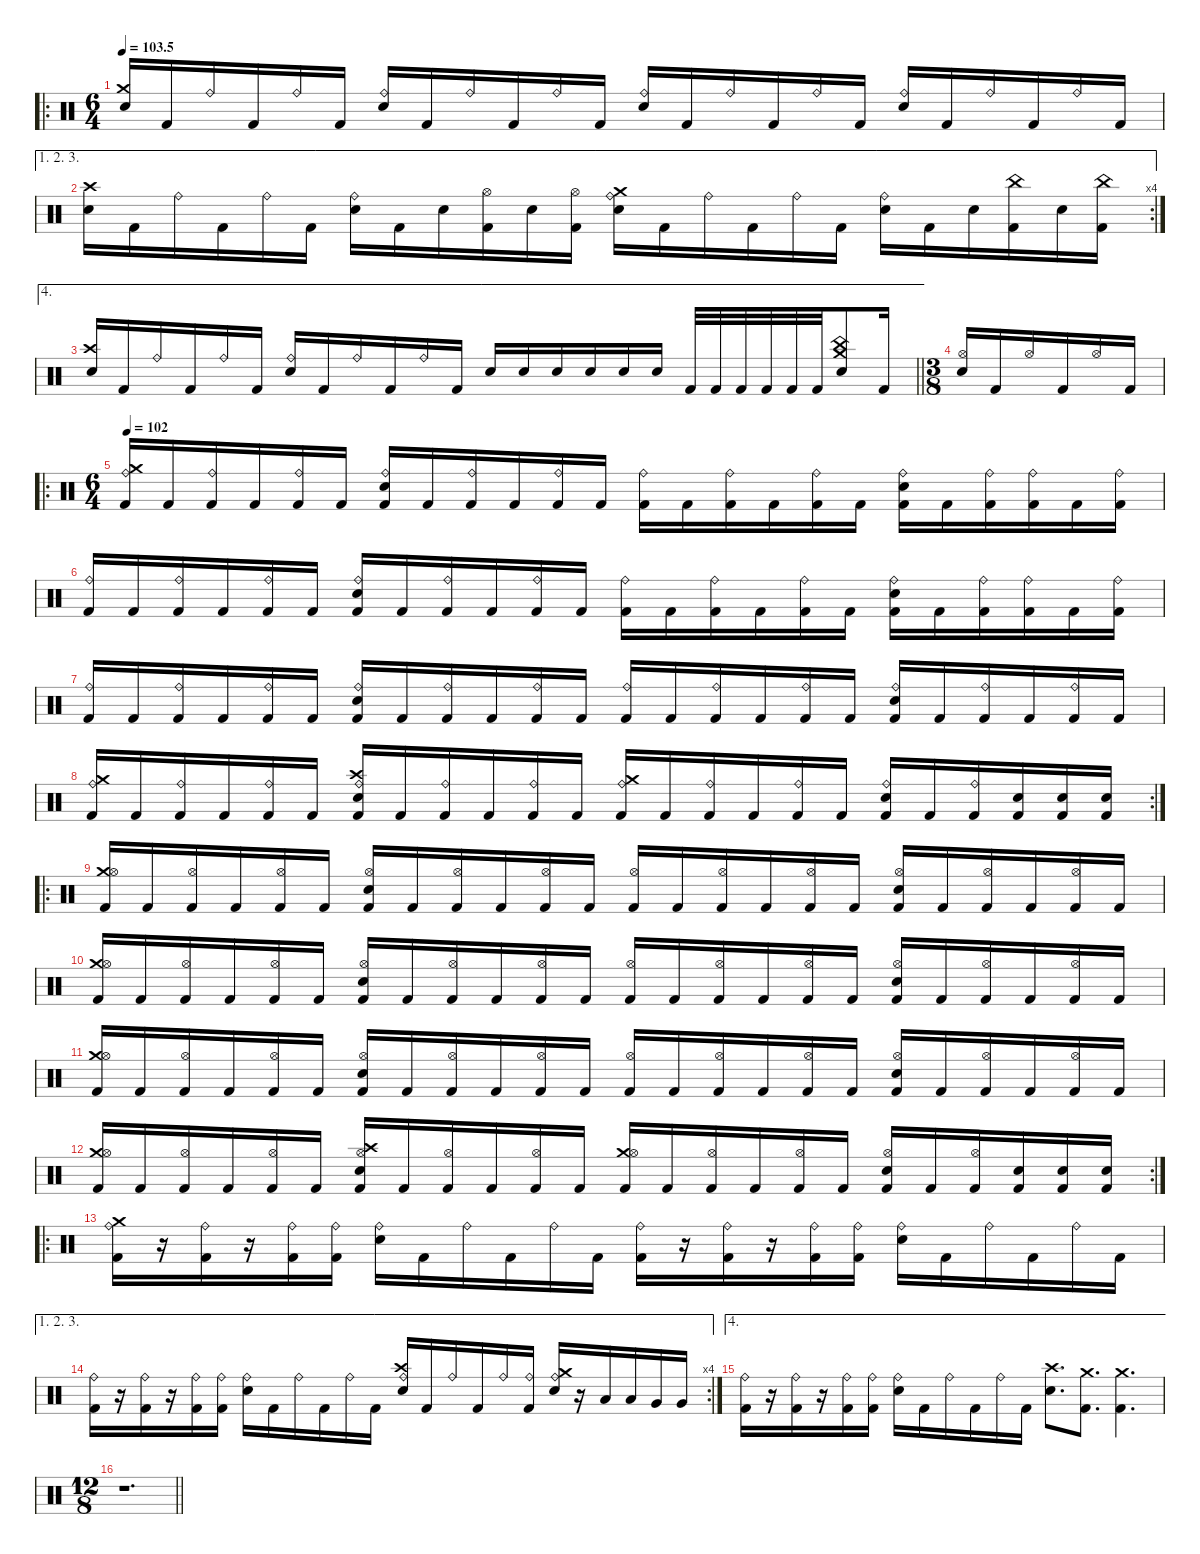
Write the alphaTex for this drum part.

\defaultSystemsLayout 4
\hideDynamics
\bracketExtendMode nobrackets
\singleTrackTrackNamePolicy hidden
\multiTrackTrackNamePolicy hidden
\firstSystemTrackNameMode fullname
\otherSystemsTrackNameOrientation horizontal
\track ("Drum set" "drm.") {instrument percussion}
\staff {score}
\articulation defaults
\ro
\ts (6 4)
\beaming (8 3 3 3 3)
\tempo
103.5
\accidentals auto
\clef neutral
\ottava regular
\simile none
\ks aminor
("Crash medium (hit)" "Snare (hit) 2").16{dy f beam Up} "Kick (hit) 2".16{beam Up} "Ride (bell)".16{beam Up} "Kick (hit) 2".16{beam Up} "Ride (bell)".16{beam Up} "Kick (hit) 2".16{beam Up} ("Ride (bell)" "Snare (hit) 2").16{beam Up} "Kick (hit) 2".16{beam Up} "Ride (bell)".16{beam Up} "Kick (hit) 2".16{beam Up} "Ride (bell)".16{beam Up} "Kick (hit) 2".16{beam Up} ("Ride (bell)" "Snare (hit) 2").16{beam Up} "Kick (hit) 2".16{beam Up} "Ride (bell)".16{beam Up} "Kick (hit) 2".16{beam Up} "Ride (bell)".16{beam Up} "Kick (hit) 2".16{beam Up} ("Ride (bell)" "Snare (hit) 2").16{beam Up} "Kick (hit) 2".16{beam Up} "Ride (bell)".16{beam Up} "Kick (hit) 2".16{beam Up} "Ride (bell)".16{beam Up} "Kick (hit) 2".16{beam Up} |
\ae (1 2 3)
\rc 4
("Crash high (hit)" "Snare (hit) 2").16{beam Down} "Kick (hit) 2".16{beam Down} "Ride (bell)".16{beam Down} "Kick (hit) 2".16{beam Down} "Ride (bell)".16{beam Down} "Kick (hit) 2".16{beam Down} ("Ride (bell)" "Snare (hit) 2").16{beam Down} "Kick (hit) 2".16{beam Down} "Snare (hit) 2".16{beam Down} ("Hi-Hat (open)" "Kick (hit) 2").16{beam Down} "Snare (hit) 2".16{beam Down} ("Hi-Hat (open)" "Kick (hit) 2").16{beam Down} ("Crash medium (hit)" "Ride (bell)" "Snare (hit) 2").16{beam Down} "Kick (hit) 2".16{beam Down} "Ride (bell)".16{beam Down} "Kick (hit) 2".16{beam Down} "Ride (bell)".16{beam Down} "Kick (hit) 2".16{beam Down} ("Ride (bell)" "Snare (hit) 2").16{beam Down} "Kick (hit) 2".16{beam Down} "Snare (hit) 2".16{beam Down} ("China (hit)" "Kick (hit) 2").16{beam Down} "Snare (hit) 2".16{beam Down} ("China (hit)" "Kick (hit) 2").16{beam Down} |
\ae 4
\barLineRight lightlight
("Crash high (hit)" "Snare (hit) 2").16{beam Up} "Kick (hit) 2".16{beam Up} "Ride (bell)".16{beam Up} "Kick (hit) 2".16{beam Up} "Ride (bell)".16{beam Up} "Kick (hit) 2".16{beam Up} ("Ride (bell)" "Snare (hit) 2").16{beam Up} "Kick (hit) 2".16{beam Up} "Ride (bell)".16{beam Up} "Kick (hit) 2".16{beam Up} "Ride (bell)".16{beam Up} "Kick (hit) 2".16{beam Up} "Snare (hit) 2".16{beam Up} "Snare (hit) 2".16{beam Up} "Snare (hit) 2".16{beam Up} "Snare (hit) 2".16{beam Up} "Snare (hit) 2".16{beam Up} "Snare (hit) 2".16{beam Up} "Kick (hit) 2".32{beam Up} "Kick (hit) 2".32{beam Up} "Kick (hit) 2".32{beam Up} "Kick (hit) 2".32{beam Up} "Kick (hit) 2".32{beam Up} "Kick (hit) 2".32{beam Up} ("China (hit)" "Crash medium (hit)" "Snare (hit) 2").8{beam Up} "Kick (hit) 2".16{beam Up} |
\ts (3 8)
\beaming (8 3 3 3 3)
("Hi-Hat (open)" "Snare (hit) 2").16{beam Up} "Kick (hit) 2".16{beam Up} "Hi-Hat (open)".16{beam Up} "Kick (hit) 2".16{beam Up} "Hi-Hat (open)".16{beam Up} "Kick (hit) 2".16{beam Up} |
\ro
\ts (6 4)
\beaming (8 3 3 3 3)
\tempo 102
("Crash medium (hit)" "Ride (bell)" "Kick (hit) 2").16{beam Up} "Kick (hit) 2".16{beam Up} ("Ride (bell)" "Kick (hit) 2").16{beam Up} "Kick (hit) 2".16{beam Up} ("Ride (bell)" "Kick (hit) 2").16{beam Up} "Kick (hit) 2".16{beam Up} ("Ride (bell)" "Snare (hit) 2" "Kick (hit) 2").16{beam Up} "Kick (hit) 2".16{beam Up} ("Ride (bell)" "Kick (hit) 2").16{beam Up} "Kick (hit) 2".16{beam Up} ("Ride (bell)" "Kick (hit) 2").16{beam Up} "Kick (hit) 2".16{beam Up} ("Ride (bell)" "Kick (hit) 2").16{beam Down} "Kick (hit) 2".16{beam Down} ("Ride (bell)" "Kick (hit) 2").16{beam Down} "Kick (hit) 2".16{beam Down} ("Ride (bell)" "Kick (hit) 2").16{beam Down} "Kick (hit) 2".16{beam Down} ("Ride (bell)" "Snare (hit) 2" "Kick (hit) 2").16{beam Down} "Kick (hit) 2".16{beam Down} ("Ride (bell)" "Kick (hit) 2").16{beam Down} ("Ride (bell)" "Kick (hit) 2").16{beam Down} "Kick (hit) 2".16{beam Down} ("Ride (bell)" "Kick (hit) 2").16{beam Down} |
("Ride (bell)" "Kick (hit) 2").16{beam Up} "Kick (hit) 2".16{beam Up} ("Ride (bell)" "Kick (hit) 2").16{beam Up} "Kick (hit) 2".16{beam Up} ("Ride (bell)" "Kick (hit) 2").16{beam Up} "Kick (hit) 2".16{beam Up} ("Ride (bell)" "Snare (hit) 2" "Kick (hit) 2").16{beam Up} "Kick (hit) 2".16{beam Up} ("Ride (bell)" "Kick (hit) 2").16{beam Up} "Kick (hit) 2".16{beam Up} ("Ride (bell)" "Kick (hit) 2").16{beam Up} "Kick (hit) 2".16{beam Up} ("Ride (bell)" "Kick (hit) 2").16{beam Down} "Kick (hit) 2".16{beam Down} ("Ride (bell)" "Kick (hit) 2").16{beam Down} "Kick (hit) 2".16{beam Down} ("Ride (bell)" "Kick (hit) 2").16{beam Down} "Kick (hit) 2".16{beam Down} ("Ride (bell)" "Snare (hit) 2" "Kick (hit) 2").16{beam Down} "Kick (hit) 2".16{beam Down} ("Ride (bell)" "Kick (hit) 2").16{beam Down} ("Ride (bell)" "Kick (hit) 2").16{beam Down} "Kick (hit) 2".16{beam Down} ("Ride (bell)" "Kick (hit) 2").16{beam Down} |
("Ride (bell)" "Kick (hit) 2").16{beam Up} "Kick (hit) 2".16{beam Up} ("Ride (bell)" "Kick (hit) 2").16{beam Up} "Kick (hit) 2".16{beam Up} ("Ride (bell)" "Kick (hit) 2").16{beam Up} "Kick (hit) 2".16{beam Up} ("Ride (bell)" "Snare (hit) 2" "Kick (hit) 2").16{beam Up} "Kick (hit) 2".16{beam Up} ("Ride (bell)" "Kick (hit) 2").16{beam Up} "Kick (hit) 2".16{beam Up} ("Ride (bell)" "Kick (hit) 2").16{beam Up} "Kick (hit) 2".16{beam Up} ("Ride (bell)" "Kick (hit) 2").16{beam Up} "Kick (hit) 2".16{beam Up} ("Ride (bell)" "Kick (hit) 2").16{beam Up} "Kick (hit) 2".16{beam Up} ("Ride (bell)" "Kick (hit) 2").16{beam Up} "Kick (hit) 2".16{beam Up} ("Ride (bell)" "Snare (hit) 2" "Kick (hit) 2").16{beam Up} "Kick (hit) 2".16{beam Up} ("Ride (bell)" "Kick (hit) 2").16{beam Up} "Kick (hit) 2".16{beam Up} ("Ride (bell)" "Kick (hit) 2").16{beam Up} "Kick (hit) 2".16{beam Up} |
\rc 2
("Crash medium (hit)" "Ride (bell)" "Kick (hit) 2").16{beam Up} "Kick (hit) 2".16{beam Up} ("Ride (bell)" "Kick (hit) 2").16{beam Up} "Kick (hit) 2".16{beam Up} ("Ride (bell)" "Kick (hit) 2").16{beam Up} "Kick (hit) 2".16{beam Up} ("Crash high (hit)" "Ride (bell)" "Snare (hit) 2" "Kick (hit) 2").16{beam Up} "Kick (hit) 2".16{beam Up} ("Ride (bell)" "Kick (hit) 2").16{beam Up} "Kick (hit) 2".16{beam Up} ("Ride (bell)" "Kick (hit) 2").16{beam Up} "Kick (hit) 2".16{beam Up} ("Crash medium (hit)" "Ride (bell)" "Kick (hit) 2").16{beam Up} "Kick (hit) 2".16{beam Up} ("Ride (bell)" "Kick (hit) 2").16{beam Up} "Kick (hit) 2".16{beam Up} ("Ride (bell)" "Kick (hit) 2").16{beam Up} "Kick (hit) 2".16{beam Up} ("Ride (bell)" "Snare (hit) 2" "Kick (hit) 2").16{beam Up} "Kick (hit) 2".16{beam Up} ("Ride (bell)" "Kick (hit) 2").16{beam Up} ("Snare (hit) 2" "Kick (hit) 2").16{beam Up} ("Snare (hit) 2" "Kick (hit) 2").16{beam Up} ("Snare (hit) 2" "Kick (hit) 2").16{beam Up} |
\ro
("Crash medium (hit)" "Hi-Hat (open)" "Kick (hit) 2").16{beam Up} "Kick (hit) 2".16{beam Up} ("Hi-Hat (open)" "Kick (hit) 2").16{beam Up} "Kick (hit) 2".16{beam Up} ("Hi-Hat (open)" "Kick (hit) 2").16{beam Up} "Kick (hit) 2".16{beam Up} ("Hi-Hat (open)" "Snare (hit) 2" "Kick (hit) 2").16{beam Up} "Kick (hit) 2".16{beam Up} ("Hi-Hat (open)" "Kick (hit) 2").16{beam Up} "Kick (hit) 2".16{beam Up} ("Hi-Hat (open)" "Kick (hit) 2").16{beam Up} "Kick (hit) 2".16{beam Up} ("Hi-Hat (open)" "Kick (hit) 2").16{beam Up} "Kick (hit) 2".16{beam Up} ("Hi-Hat (open)" "Kick (hit) 2").16{beam Up} "Kick (hit) 2".16{beam Up} ("Hi-Hat (open)" "Kick (hit) 2").16{beam Up} "Kick (hit) 2".16{beam Up} ("Hi-Hat (open)" "Snare (hit) 2" "Kick (hit) 2").16{beam Up} "Kick (hit) 2".16{beam Up} ("Hi-Hat (open)" "Kick (hit) 2").16{beam Up} "Kick (hit) 2".16{beam Up} ("Hi-Hat (open)" "Kick (hit) 2").16{beam Up} "Kick (hit) 2".16{beam Up} |
("Crash medium (hit)" "Hi-Hat (open)" "Kick (hit) 2").16{beam Up} "Kick (hit) 2".16{beam Up} ("Hi-Hat (open)" "Kick (hit) 2").16{beam Up} "Kick (hit) 2".16{beam Up} ("Hi-Hat (open)" "Kick (hit) 2").16{beam Up} "Kick (hit) 2".16{beam Up} ("Hi-Hat (open)" "Snare (hit) 2" "Kick (hit) 2").16{beam Up} "Kick (hit) 2".16{beam Up} ("Hi-Hat (open)" "Kick (hit) 2").16{beam Up} "Kick (hit) 2".16{beam Up} ("Hi-Hat (open)" "Kick (hit) 2").16{beam Up} "Kick (hit) 2".16{beam Up} ("Hi-Hat (open)" "Kick (hit) 2").16{beam Up} "Kick (hit) 2".16{beam Up} ("Hi-Hat (open)" "Kick (hit) 2").16{beam Up} "Kick (hit) 2".16{beam Up} ("Hi-Hat (open)" "Kick (hit) 2").16{beam Up} "Kick (hit) 2".16{beam Up} ("Hi-Hat (open)" "Snare (hit) 2" "Kick (hit) 2").16{beam Up} "Kick (hit) 2".16{beam Up} ("Hi-Hat (open)" "Kick (hit) 2").16{beam Up} "Kick (hit) 2".16{beam Up} ("Hi-Hat (open)" "Kick (hit) 2").16{beam Up} "Kick (hit) 2".16{beam Up} |
("Crash medium (hit)" "Hi-Hat (open)" "Kick (hit) 2").16{beam Up} "Kick (hit) 2".16{beam Up} ("Hi-Hat (open)" "Kick (hit) 2").16{beam Up} "Kick (hit) 2".16{beam Up} ("Hi-Hat (open)" "Kick (hit) 2").16{beam Up} "Kick (hit) 2".16{beam Up} ("Hi-Hat (open)" "Snare (hit) 2" "Kick (hit) 2").16{beam Up} "Kick (hit) 2".16{beam Up} ("Hi-Hat (open)" "Kick (hit) 2").16{beam Up} "Kick (hit) 2".16{beam Up} ("Hi-Hat (open)" "Kick (hit) 2").16{beam Up} "Kick (hit) 2".16{beam Up} ("Hi-Hat (open)" "Kick (hit) 2").16{beam Up} "Kick (hit) 2".16{beam Up} ("Hi-Hat (open)" "Kick (hit) 2").16{beam Up} "Kick (hit) 2".16{beam Up} ("Hi-Hat (open)" "Kick (hit) 2").16{beam Up} "Kick (hit) 2".16{beam Up} ("Hi-Hat (open)" "Snare (hit) 2" "Kick (hit) 2").16{beam Up} "Kick (hit) 2".16{beam Up} ("Hi-Hat (open)" "Kick (hit) 2").16{beam Up} "Kick (hit) 2".16{beam Up} ("Hi-Hat (open)" "Kick (hit) 2").16{beam Up} "Kick (hit) 2".16{beam Up} |
\rc 2
("Crash medium (hit)" "Hi-Hat (open)" "Kick (hit) 2").16{beam Up} "Kick (hit) 2".16{beam Up} ("Hi-Hat (open)" "Kick (hit) 2").16{beam Up} "Kick (hit) 2".16{beam Up} ("Hi-Hat (open)" "Kick (hit) 2").16{beam Up} "Kick (hit) 2".16{beam Up} ("Crash high (hit)" "Hi-Hat (open)" "Snare (hit) 2" "Kick (hit) 2").16{beam Up} "Kick (hit) 2".16{beam Up} ("Hi-Hat (open)" "Kick (hit) 2").16{beam Up} "Kick (hit) 2".16{beam Up} ("Hi-Hat (open)" "Kick (hit) 2").16{beam Up} "Kick (hit) 2".16{beam Up} ("Crash medium (hit)" "Hi-Hat (open)" "Kick (hit) 2").16{beam Up} "Kick (hit) 2".16{beam Up} ("Hi-Hat (open)" "Kick (hit) 2").16{beam Up} "Kick (hit) 2".16{beam Up} ("Hi-Hat (open)" "Kick (hit) 2").16{beam Up} "Kick (hit) 2".16{beam Up} ("Hi-Hat (open)" "Snare (hit) 2" "Kick (hit) 2").16{beam Up} "Kick (hit) 2".16{beam Up} ("Hi-Hat (open)" "Kick (hit) 2").16{beam Up} ("Snare (hit) 2" "Kick (hit) 2").16{beam Up} ("Snare (hit) 2" "Kick (hit) 2").16{beam Up} ("Snare (hit) 2" "Kick (hit) 2").16{beam Up} |
\ro
("Crash medium (hit)" "Ride (bell)" "Kick (hit) 2").16{beam Down} r.16{beam Down} ("Ride (bell)" "Kick (hit) 2").16{beam Down} r.16{beam Down} ("Ride (bell)" "Kick (hit) 2").16{beam Down} ("Ride (bell)" "Kick (hit) 2").16{beam Down} ("Ride (bell)" "Snare (hit) 2").16{beam Down} "Kick (hit) 2".16{beam Down} "Ride (bell)".16{beam Down} "Kick (hit) 2".16{beam Down} "Ride (bell)".16{beam Down} "Kick (hit) 2".16{beam Down} ("Ride (bell)" "Kick (hit) 2").16{beam Down} r.16{beam Down} ("Ride (bell)" "Kick (hit) 2").16{beam Down} r.16{beam Down} ("Ride (bell)" "Kick (hit) 2").16{beam Down} ("Ride (bell)" "Kick (hit) 2").16{beam Down} ("Ride (bell)" "Snare (hit) 2").16{beam Down} "Kick (hit) 2".16{beam Down} "Ride (bell)".16{beam Down} "Kick (hit) 2".16{beam Down} "Ride (bell)".16{beam Down} "Kick (hit) 2".16{beam Down} |
\ae (1 2 3)
\rc 4
("Ride (bell)" "Kick (hit) 2").16{beam Down} r.16{beam Down} ("Ride (bell)" "Kick (hit) 2").16{beam Down} r.16{beam Down} ("Ride (bell)" "Kick (hit) 2").16{beam Down} ("Ride (bell)" "Kick (hit) 2").16{beam Down} ("Ride (bell)" "Snare (hit) 2").16{beam Down} "Kick (hit) 2".16{beam Down} "Ride (bell)".16{beam Down} "Kick (hit) 2".16{beam Down} "Ride (bell)".16{beam Down} "Kick (hit) 2".16{beam Down} ("Crash high (hit)" "Ride (bell)" "Snare (hit) 2").16{beam Up} "Kick (hit) 2".16{beam Up} "Ride (bell)".16{beam Up} "Kick (hit) 2".16{beam Up} "Ride (bell)".16{beam Up} ("Ride (bell)" "Kick (hit) 2").16{beam Up} ("Crash medium (hit)" "Ride (bell)" "Snare (hit) 2").16{beam Up} r.16{beam Up} "Low Tom (hit)".16{beam Up} "Low Tom (hit)".16{beam Up} "Very Low Tom (hit)".16{beam Up} "Very Low Tom (hit)".16{beam Up} |
\ae 4
("Ride (bell)" "Kick (hit) 2").16{beam Down} r.16{beam Down} ("Ride (bell)" "Kick (hit) 2").16{beam Down} r.16{beam Down} ("Ride (bell)" "Kick (hit) 2").16{beam Down} ("Ride (bell)" "Kick (hit) 2").16{beam Down} ("Ride (bell)" "Snare (hit) 2").16{beam Down} "Kick (hit) 2".16{beam Down} "Ride (bell)".16{beam Down} "Kick (hit) 2".16{beam Down} "Ride (bell)".16{beam Down} "Kick (hit) 2".16{beam Down} ("Crash high (hit)" "Snare (hit) 2").8{d beam Down} ("Crash medium (hit)" "Kick (hit) 2").8{d beam Down} ("Crash medium (hit)" "Kick (hit) 2").4{d beam Down} |
\ts (12 8)
\beaming (8 3 3 3 3)
\barLineRight lightlight
r.1{d beam Down}
